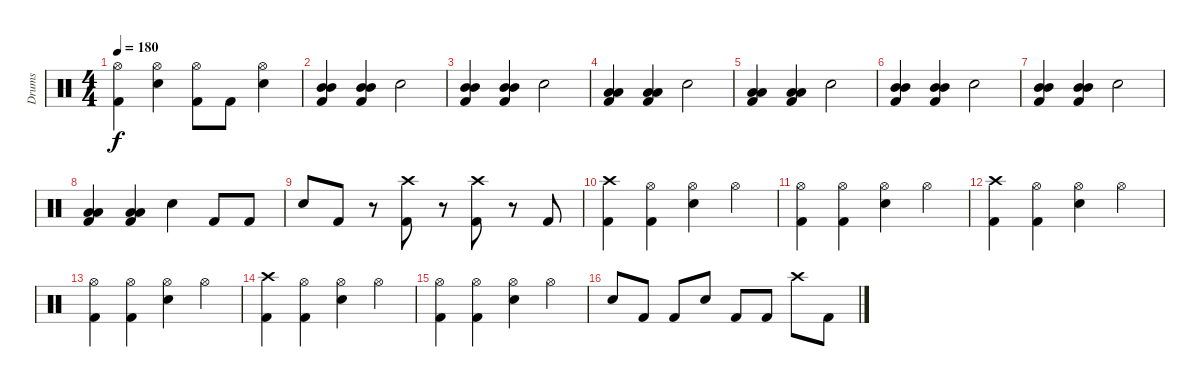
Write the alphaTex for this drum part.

\track ("Drums" "Drums") {instrument percussion}
\staff {score}
\articulation defaults
\ts (4 4)
\tempo 180
\clef neutral
\ks c
("Hi-Hat (open)" "Kick (hit) 2").4{dy f} ("Hi-Hat (open)" "Electric Snare (hit)").4 ("Hi-Hat (open)" "Kick (hit) 2").8 "Kick (hit) 2".8 ("Hi-Hat (open)" "Electric Snare (hit)").4 |
("Mid Tom (hit)" "Mid Tom (hit)" "Kick (hit) 2").4 ("Mid Tom (hit)" "Mid Tom (hit)" "Kick (hit) 2").4 "Electric Snare (hit)".2 |
("Mid Tom (hit)" "Mid Tom (hit)" "Kick (hit) 2").4 ("Mid Tom (hit)" "Mid Tom (hit)" "Kick (hit) 2").4 "Electric Snare (hit)".2 |
("Low Tom (hit)" "Low Tom (hit)" "Kick (hit) 2").4 ("Low Tom (hit)" "Low Tom (hit)" "Kick (hit) 2").4 "Electric Snare (hit)".2 |
("Low Tom (hit)" "Low Tom (hit)" "Kick (hit) 2").4 ("Low Tom (hit)" "Low Tom (hit)" "Kick (hit) 2").4 "Electric Snare (hit)".2 |
("Mid Tom (hit)" "Mid Tom (hit)" "Kick (hit) 2").4 ("Mid Tom (hit)" "Mid Tom (hit)" "Kick (hit) 2").4 "Electric Snare (hit)".2 |
("Mid Tom (hit)" "Mid Tom (hit)" "Kick (hit) 2").4 ("Mid Tom (hit)" "Mid Tom (hit)" "Kick (hit) 2").4 "Electric Snare (hit)".2 |
("Low Tom (hit)" "Low Tom (hit)" "Kick (hit) 2").4 ("Low Tom (hit)" "Low Tom (hit)" "Kick (hit) 2").4 "Electric Snare (hit)".4 "Kick (hit) 2".8 "Kick (hit) 2".8 |
"Electric Snare (hit)".8 "Kick (hit) 2".8 r.8 ("Crash high (hit)" "Kick (hit) 2").8 r.8{volume 0} ("Crash high (hit)" "Kick (hit) 2").8{volume 16} r.8{volume 0} "Kick (hit) 2".8{volume 16} |
("Crash high (hit)" "Kick (hit) 2").4 ("Hi-Hat (open)" "Kick (hit) 2").4 ("Hi-Hat (open)" "Electric Snare (hit)").4 "Hi-Hat (open)".4 |
("Hi-Hat (open)" "Kick (hit) 2").4 ("Hi-Hat (open)" "Kick (hit) 2").4 ("Hi-Hat (open)" "Electric Snare (hit)").4 "Hi-Hat (open)".4 |
("Crash high (hit)" "Kick (hit) 2").4 ("Hi-Hat (open)" "Kick (hit) 2").4 ("Hi-Hat (open)" "Electric Snare (hit)").4 "Hi-Hat (open)".4 |
("Hi-Hat (open)" "Kick (hit) 2").4 ("Hi-Hat (open)" "Kick (hit) 2").4 ("Hi-Hat (open)" "Electric Snare (hit)").4 "Hi-Hat (open)".4 |
("Crash high (hit)" "Kick (hit) 2").4 ("Hi-Hat (open)" "Kick (hit) 2").4 ("Hi-Hat (open)" "Electric Snare (hit)").4 "Hi-Hat (open)".4 |
("Hi-Hat (open)" "Kick (hit) 2").4 ("Hi-Hat (open)" "Kick (hit) 2").4 ("Hi-Hat (open)" "Electric Snare (hit)").4 "Hi-Hat (open)".4 |
"Electric Snare (hit)".8 "Kick (hit) 2".8 "Kick (hit) 2".8 "Electric Snare (hit)".8 "Kick (hit) 2".8 "Kick (hit) 2".8 "Crash high (hit)".8 "Kick (hit) 2".8
